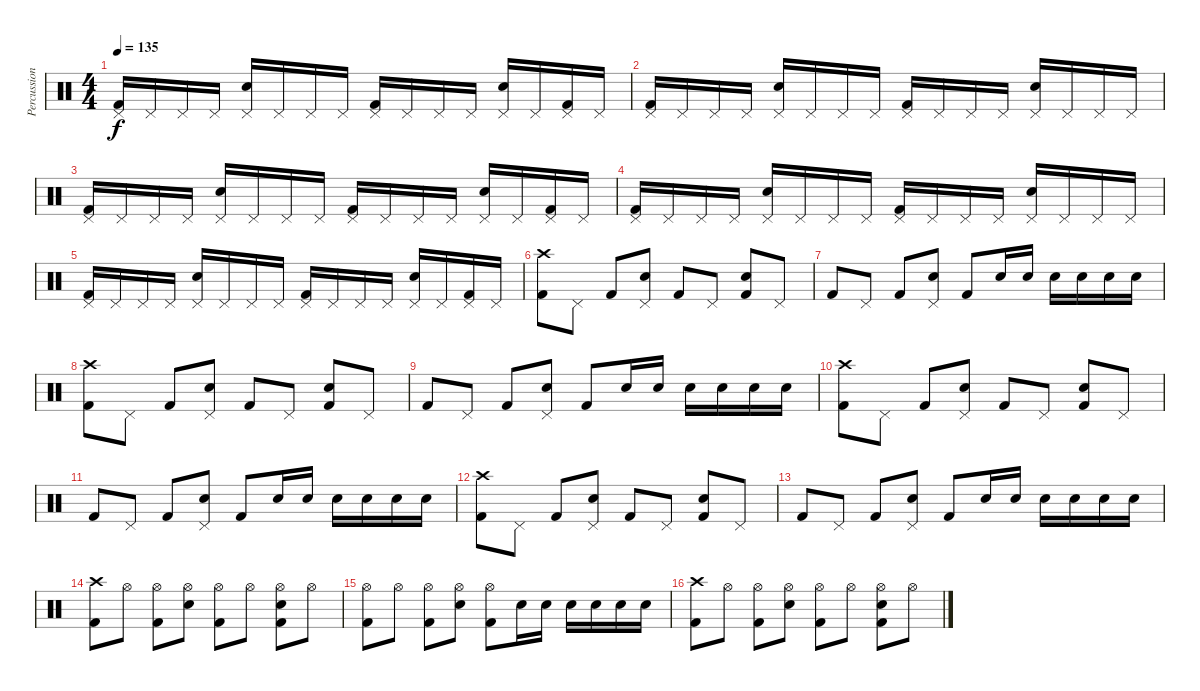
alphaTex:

\track ("Percussion" "Percussion") {instrument percussion}
\staff {score}
\articulation defaults
\ts (4 4)
\tempo 135
\clef neutral
\ks c
("Kick (hit) 2" "Pedal Hi-Hat (hit)").16{dy f} "Pedal Hi-Hat (hit)".16 "Pedal Hi-Hat (hit)".16 "Pedal Hi-Hat (hit)".16 ("Electric Snare (hit)" "Pedal Hi-Hat (hit)").16 "Pedal Hi-Hat (hit)".16 "Pedal Hi-Hat (hit)".16 "Pedal Hi-Hat (hit)".16 ("Kick (hit) 2" "Pedal Hi-Hat (hit)").16 "Pedal Hi-Hat (hit)".16 "Pedal Hi-Hat (hit)".16 "Pedal Hi-Hat (hit)".16 ("Electric Snare (hit)" "Pedal Hi-Hat (hit)").16 "Pedal Hi-Hat (hit)".16 ("Kick (hit) 2" "Pedal Hi-Hat (hit)").16 "Pedal Hi-Hat (hit)".16 |
("Kick (hit) 2" "Pedal Hi-Hat (hit)").16 "Pedal Hi-Hat (hit)".16 "Pedal Hi-Hat (hit)".16 "Pedal Hi-Hat (hit)".16 ("Electric Snare (hit)" "Pedal Hi-Hat (hit)").16 "Pedal Hi-Hat (hit)".16 "Pedal Hi-Hat (hit)".16 "Pedal Hi-Hat (hit)".16 ("Kick (hit) 2" "Pedal Hi-Hat (hit)").16 "Pedal Hi-Hat (hit)".16 "Pedal Hi-Hat (hit)".16 "Pedal Hi-Hat (hit)".16 ("Electric Snare (hit)" "Pedal Hi-Hat (hit)").16 "Pedal Hi-Hat (hit)".16 "Pedal Hi-Hat (hit)".16 "Pedal Hi-Hat (hit)".16 |
("Kick (hit) 2" "Pedal Hi-Hat (hit)").16 "Pedal Hi-Hat (hit)".16 "Pedal Hi-Hat (hit)".16 "Pedal Hi-Hat (hit)".16 ("Electric Snare (hit)" "Pedal Hi-Hat (hit)").16 "Pedal Hi-Hat (hit)".16 "Pedal Hi-Hat (hit)".16 "Pedal Hi-Hat (hit)".16 ("Kick (hit) 2" "Pedal Hi-Hat (hit)").16 "Pedal Hi-Hat (hit)".16 "Pedal Hi-Hat (hit)".16 "Pedal Hi-Hat (hit)".16 ("Electric Snare (hit)" "Pedal Hi-Hat (hit)").16 "Pedal Hi-Hat (hit)".16 ("Kick (hit) 2" "Pedal Hi-Hat (hit)").16 "Pedal Hi-Hat (hit)".16 |
("Kick (hit) 2" "Pedal Hi-Hat (hit)").16 "Pedal Hi-Hat (hit)".16 "Pedal Hi-Hat (hit)".16 "Pedal Hi-Hat (hit)".16 ("Electric Snare (hit)" "Pedal Hi-Hat (hit)").16 "Pedal Hi-Hat (hit)".16 "Pedal Hi-Hat (hit)".16 "Pedal Hi-Hat (hit)".16 ("Kick (hit) 2" "Pedal Hi-Hat (hit)").16 "Pedal Hi-Hat (hit)".16 "Pedal Hi-Hat (hit)".16 "Pedal Hi-Hat (hit)".16 ("Electric Snare (hit)" "Pedal Hi-Hat (hit)").16 "Pedal Hi-Hat (hit)".16 "Pedal Hi-Hat (hit)".16 "Pedal Hi-Hat (hit)".16 |
("Kick (hit) 2" "Pedal Hi-Hat (hit)").16 "Pedal Hi-Hat (hit)".16 "Pedal Hi-Hat (hit)".16 "Pedal Hi-Hat (hit)".16 ("Electric Snare (hit)" "Pedal Hi-Hat (hit)").16 "Pedal Hi-Hat (hit)".16 "Pedal Hi-Hat (hit)".16 "Pedal Hi-Hat (hit)".16 ("Kick (hit) 2" "Pedal Hi-Hat (hit)").16 "Pedal Hi-Hat (hit)".16 "Pedal Hi-Hat (hit)".16 "Pedal Hi-Hat (hit)".16 ("Electric Snare (hit)" "Pedal Hi-Hat (hit)").16 "Pedal Hi-Hat (hit)".16 ("Kick (hit) 2" "Pedal Hi-Hat (hit)").16 "Pedal Hi-Hat (hit)".16 |
("Crash high (hit)" "Kick (hit) 2").8 "Pedal Hi-Hat (hit)".8 "Kick (hit) 2".8 ("Electric Snare (hit)" "Pedal Hi-Hat (hit)").8 "Kick (hit) 2".8 "Pedal Hi-Hat (hit)".8 ("Electric Snare (hit)" "Kick (hit) 2").8 "Pedal Hi-Hat (hit)".8 |
"Kick (hit) 2".8 "Pedal Hi-Hat (hit)".8 "Kick (hit) 2".8 ("Electric Snare (hit)" "Pedal Hi-Hat (hit)").8 "Kick (hit) 2".8 "Electric Snare (hit)".16 "Electric Snare (hit)".16 "Electric Snare (hit)".16 "Electric Snare (hit)".16 "Electric Snare (hit)".16 "Electric Snare (hit)".16 |
("Crash high (hit)" "Kick (hit) 2").8 "Pedal Hi-Hat (hit)".8 "Kick (hit) 2".8 ("Electric Snare (hit)" "Pedal Hi-Hat (hit)").8 "Kick (hit) 2".8 "Pedal Hi-Hat (hit)".8 ("Electric Snare (hit)" "Kick (hit) 2").8 "Pedal Hi-Hat (hit)".8 |
"Kick (hit) 2".8 "Pedal Hi-Hat (hit)".8 "Kick (hit) 2".8 ("Electric Snare (hit)" "Pedal Hi-Hat (hit)").8 "Kick (hit) 2".8 "Electric Snare (hit)".16 "Electric Snare (hit)".16 "Electric Snare (hit)".16 "Electric Snare (hit)".16 "Electric Snare (hit)".16 "Electric Snare (hit)".16 |
("Crash high (hit)" "Kick (hit) 2").8 "Pedal Hi-Hat (hit)".8 "Kick (hit) 2".8 ("Electric Snare (hit)" "Pedal Hi-Hat (hit)").8 "Kick (hit) 2".8 "Pedal Hi-Hat (hit)".8 ("Electric Snare (hit)" "Kick (hit) 2").8 "Pedal Hi-Hat (hit)".8 |
"Kick (hit) 2".8 "Pedal Hi-Hat (hit)".8 "Kick (hit) 2".8 ("Electric Snare (hit)" "Pedal Hi-Hat (hit)").8 "Kick (hit) 2".8 "Electric Snare (hit)".16 "Electric Snare (hit)".16 "Electric Snare (hit)".16 "Electric Snare (hit)".16 "Electric Snare (hit)".16 "Electric Snare (hit)".16 |
("Crash high (hit)" "Kick (hit) 2").8 "Pedal Hi-Hat (hit)".8 "Kick (hit) 2".8 ("Electric Snare (hit)" "Pedal Hi-Hat (hit)").8 "Kick (hit) 2".8 "Pedal Hi-Hat (hit)".8 ("Electric Snare (hit)" "Kick (hit) 2").8 "Pedal Hi-Hat (hit)".8 |
"Kick (hit) 2".8 "Pedal Hi-Hat (hit)".8 "Kick (hit) 2".8 ("Electric Snare (hit)" "Pedal Hi-Hat (hit)").8 "Kick (hit) 2".8 "Electric Snare (hit)".16 "Electric Snare (hit)".16 "Electric Snare (hit)".16 "Electric Snare (hit)".16 "Electric Snare (hit)".16 "Electric Snare (hit)".16 |
("Crash high (hit)" "Kick (hit) 2").8 "Hi-Hat (open)".8 ("Hi-Hat (open)" "Kick (hit) 2").8 ("Electric Snare (hit)" "Hi-Hat (open)").8 ("Hi-Hat (open)" "Kick (hit) 2").8 "Hi-Hat (open)".8 ("Electric Snare (hit)" "Hi-Hat (open)" "Kick (hit) 2").8 "Hi-Hat (open)".8 |
("Hi-Hat (open)" "Kick (hit) 2").8 "Hi-Hat (open)".8 ("Hi-Hat (open)" "Kick (hit) 2").8 ("Electric Snare (hit)" "Hi-Hat (open)").8 ("Hi-Hat (open)" "Kick (hit) 2").8 "Electric Snare (hit)".16 "Electric Snare (hit)".16 "Electric Snare (hit)".16 "Electric Snare (hit)".16 "Electric Snare (hit)".16 "Electric Snare (hit)".16 |
("Crash high (hit)" "Kick (hit) 2").8 "Hi-Hat (open)".8 ("Hi-Hat (open)" "Kick (hit) 2").8 ("Electric Snare (hit)" "Hi-Hat (open)").8 ("Hi-Hat (open)" "Kick (hit) 2").8 "Hi-Hat (open)".8 ("Electric Snare (hit)" "Hi-Hat (open)" "Kick (hit) 2").8 "Hi-Hat (open)".8
